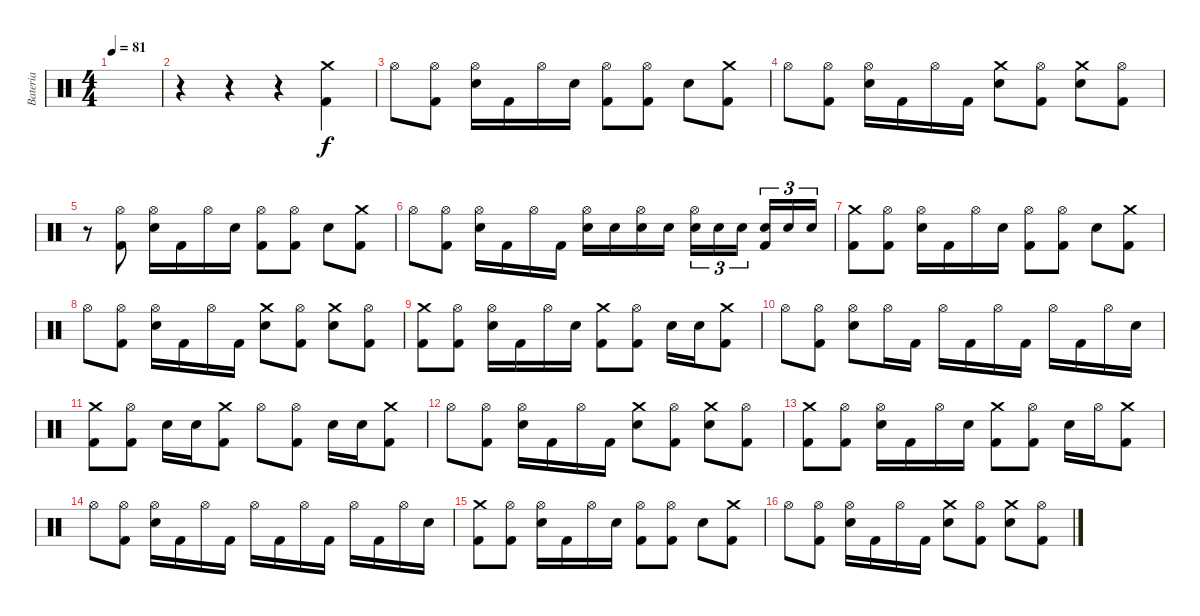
\track ("Bateria" "Bateria") {instrument percussion}
\staff {score}
\articulation defaults
\ts (4 4)
\tempo 81
\clef neutral
\ks c
|
r.4 r.4 r.4 ("Crash medium (hit)" "Kick (hit) 2").4 |
"Hi-Hat (open)".8 ("Hi-Hat (open)" "Kick (hit) 2").8 ("Hi-Hat (open)" "Electric Snare (hit)").16 "Kick (hit) 2".16 "Hi-Hat (open)".16 "Electric Snare (hit)".16 ("Hi-Hat (open)" "Kick (hit) 2").8 ("Hi-Hat (open)" "Kick (hit) 2").8 "Electric Snare (hit)".8 ("Crash medium (hit)" "Kick (hit) 2").8 |
"Hi-Hat (open)".8 ("Hi-Hat (open)" "Kick (hit) 2").8 ("Hi-Hat (open)" "Electric Snare (hit)").16 "Kick (hit) 2".16 "Hi-Hat (open)".16 "Kick (hit) 2".16 ("Crash medium (hit)" "Electric Snare (hit)").8 ("Hi-Hat (open)" "Kick (hit) 2").8 ("Crash medium (hit)" "Electric Snare (hit)").8 ("Hi-Hat (open)" "Kick (hit) 2").8 |
r.8 ("Hi-Hat (open)" "Kick (hit) 2").8 ("Hi-Hat (open)" "Electric Snare (hit)").16 "Kick (hit) 2".16 "Hi-Hat (open)".16 "Electric Snare (hit)".16 ("Hi-Hat (open)" "Kick (hit) 2").8 ("Hi-Hat (open)" "Kick (hit) 2").8 "Electric Snare (hit)".8 ("Crash medium (hit)" "Kick (hit) 2").8 |
"Hi-Hat (open)".8 ("Hi-Hat (open)" "Kick (hit) 2").8 ("Hi-Hat (open)" "Electric Snare (hit)").16 "Kick (hit) 2".16 "Hi-Hat (open)".16 "Kick (hit) 2".16 ("Hi-Hat (open)" "Electric Snare (hit)").16 "Electric Snare (hit)".16 ("Hi-Hat (open)" "Electric Snare (hit)").16 "Electric Snare (hit)".16 ("Hi-Hat (open)" "Electric Snare (hit)").16{tu (3 2)} "Electric Snare (hit)".16{tu (3 2)} "Electric Snare (hit)".16{tu (3 2)} ("Electric Snare (hit)" "Kick (hit) 2").16{tu (3 2)} "Electric Snare (hit)".16{tu (3 2)} "Electric Snare (hit)".16{tu (3 2)} |
("Crash medium (hit)" "Kick (hit) 2").8 ("Hi-Hat (open)" "Kick (hit) 2").8 ("Hi-Hat (open)" "Electric Snare (hit)").16 "Kick (hit) 2".16 "Hi-Hat (open)".16 "Electric Snare (hit)".16 ("Hi-Hat (open)" "Kick (hit) 2").8 ("Hi-Hat (open)" "Kick (hit) 2").8 "Electric Snare (hit)".8 ("Crash medium (hit)" "Kick (hit) 2").8 |
"Hi-Hat (open)".8 ("Hi-Hat (open)" "Kick (hit) 2").8 ("Hi-Hat (open)" "Electric Snare (hit)").16 "Kick (hit) 2".16 "Hi-Hat (open)".16 "Kick (hit) 2".16 ("Crash medium (hit)" "Electric Snare (hit)").8 ("Hi-Hat (open)" "Kick (hit) 2").8 ("Crash medium (hit)" "Electric Snare (hit)").8 ("Hi-Hat (open)" "Kick (hit) 2").8 |
("Crash medium (hit)" "Kick (hit) 2").8 ("Hi-Hat (open)" "Kick (hit) 2").8 ("Hi-Hat (open)" "Electric Snare (hit)").16 "Kick (hit) 2".16 "Hi-Hat (open)".16 "Electric Snare (hit)".16 ("Crash medium (hit)" "Kick (hit) 2").8 ("Hi-Hat (open)" "Kick (hit) 2").8 "Electric Snare (hit)".16 "Electric Snare (hit)".16 ("Crash medium (hit)" "Kick (hit) 2").8 |
"Hi-Hat (open)".8 ("Hi-Hat (open)" "Kick (hit) 2").8 ("Hi-Hat (open)" "Electric Snare (hit)").8 "Hi-Hat (open)".16 "Kick (hit) 2".16 "Hi-Hat (open)".16 "Kick (hit) 2".16 "Hi-Hat (open)".16 "Kick (hit) 2".16 "Hi-Hat (open)".16 "Kick (hit) 2".16 "Hi-Hat (open)".16 "Electric Snare (hit)".16 |
("Crash medium (hit)" "Kick (hit) 2").8 ("Hi-Hat (open)" "Kick (hit) 2").8 "Electric Snare (hit)".16 "Electric Snare (hit)".16 ("Crash medium (hit)" "Kick (hit) 2").8 "Hi-Hat (open)".8 ("Hi-Hat (open)" "Kick (hit) 2").8 "Electric Snare (hit)".16 "Electric Snare (hit)".16 ("Crash medium (hit)" "Kick (hit) 2").8 |
"Hi-Hat (open)".8 ("Hi-Hat (open)" "Kick (hit) 2").8 ("Hi-Hat (open)" "Electric Snare (hit)").16 "Kick (hit) 2".16 "Hi-Hat (open)".16 "Kick (hit) 2".16 ("Crash medium (hit)" "Electric Snare (hit)").8 ("Hi-Hat (open)" "Kick (hit) 2").8 ("Crash medium (hit)" "Electric Snare (hit)").8 ("Hi-Hat (open)" "Kick (hit) 2").8 |
("Crash medium (hit)" "Kick (hit) 2").8 ("Hi-Hat (open)" "Kick (hit) 2").8 ("Hi-Hat (open)" "Electric Snare (hit)").16 "Kick (hit) 2".16 "Hi-Hat (open)".16 "Electric Snare (hit)".16 ("Crash medium (hit)" "Kick (hit) 2").8 ("Hi-Hat (open)" "Kick (hit) 2").8 "Electric Snare (hit)".16 "Hi-Hat (open)".16 ("Crash medium (hit)" "Kick (hit) 2").8 |
"Hi-Hat (open)".8 ("Hi-Hat (open)" "Kick (hit) 2").8 ("Hi-Hat (open)" "Electric Snare (hit)").16 "Kick (hit) 2".16 "Hi-Hat (open)".16 "Kick (hit) 2".16 "Hi-Hat (open)".16 "Kick (hit) 2".16 "Hi-Hat (open)".16 "Kick (hit) 2".16 "Hi-Hat (open)".16 "Kick (hit) 2".16 "Hi-Hat (open)".16 "Electric Snare (hit)".16 |
("Crash medium (hit)" "Kick (hit) 2").8 ("Hi-Hat (open)" "Kick (hit) 2").8 ("Hi-Hat (open)" "Electric Snare (hit)").16 "Kick (hit) 2".16 "Hi-Hat (open)".16 "Electric Snare (hit)".16 ("Hi-Hat (open)" "Kick (hit) 2").8 ("Hi-Hat (open)" "Kick (hit) 2").8 "Electric Snare (hit)".8 ("Crash medium (hit)" "Kick (hit) 2").8 |
"Hi-Hat (open)".8 ("Hi-Hat (open)" "Kick (hit) 2").8 ("Hi-Hat (open)" "Electric Snare (hit)").16 "Kick (hit) 2".16 "Hi-Hat (open)".16 "Kick (hit) 2".16 ("Crash medium (hit)" "Electric Snare (hit)").8 ("Hi-Hat (open)" "Kick (hit) 2").8 ("Crash medium (hit)" "Electric Snare (hit)").8 ("Hi-Hat (open)" "Kick (hit) 2").8
